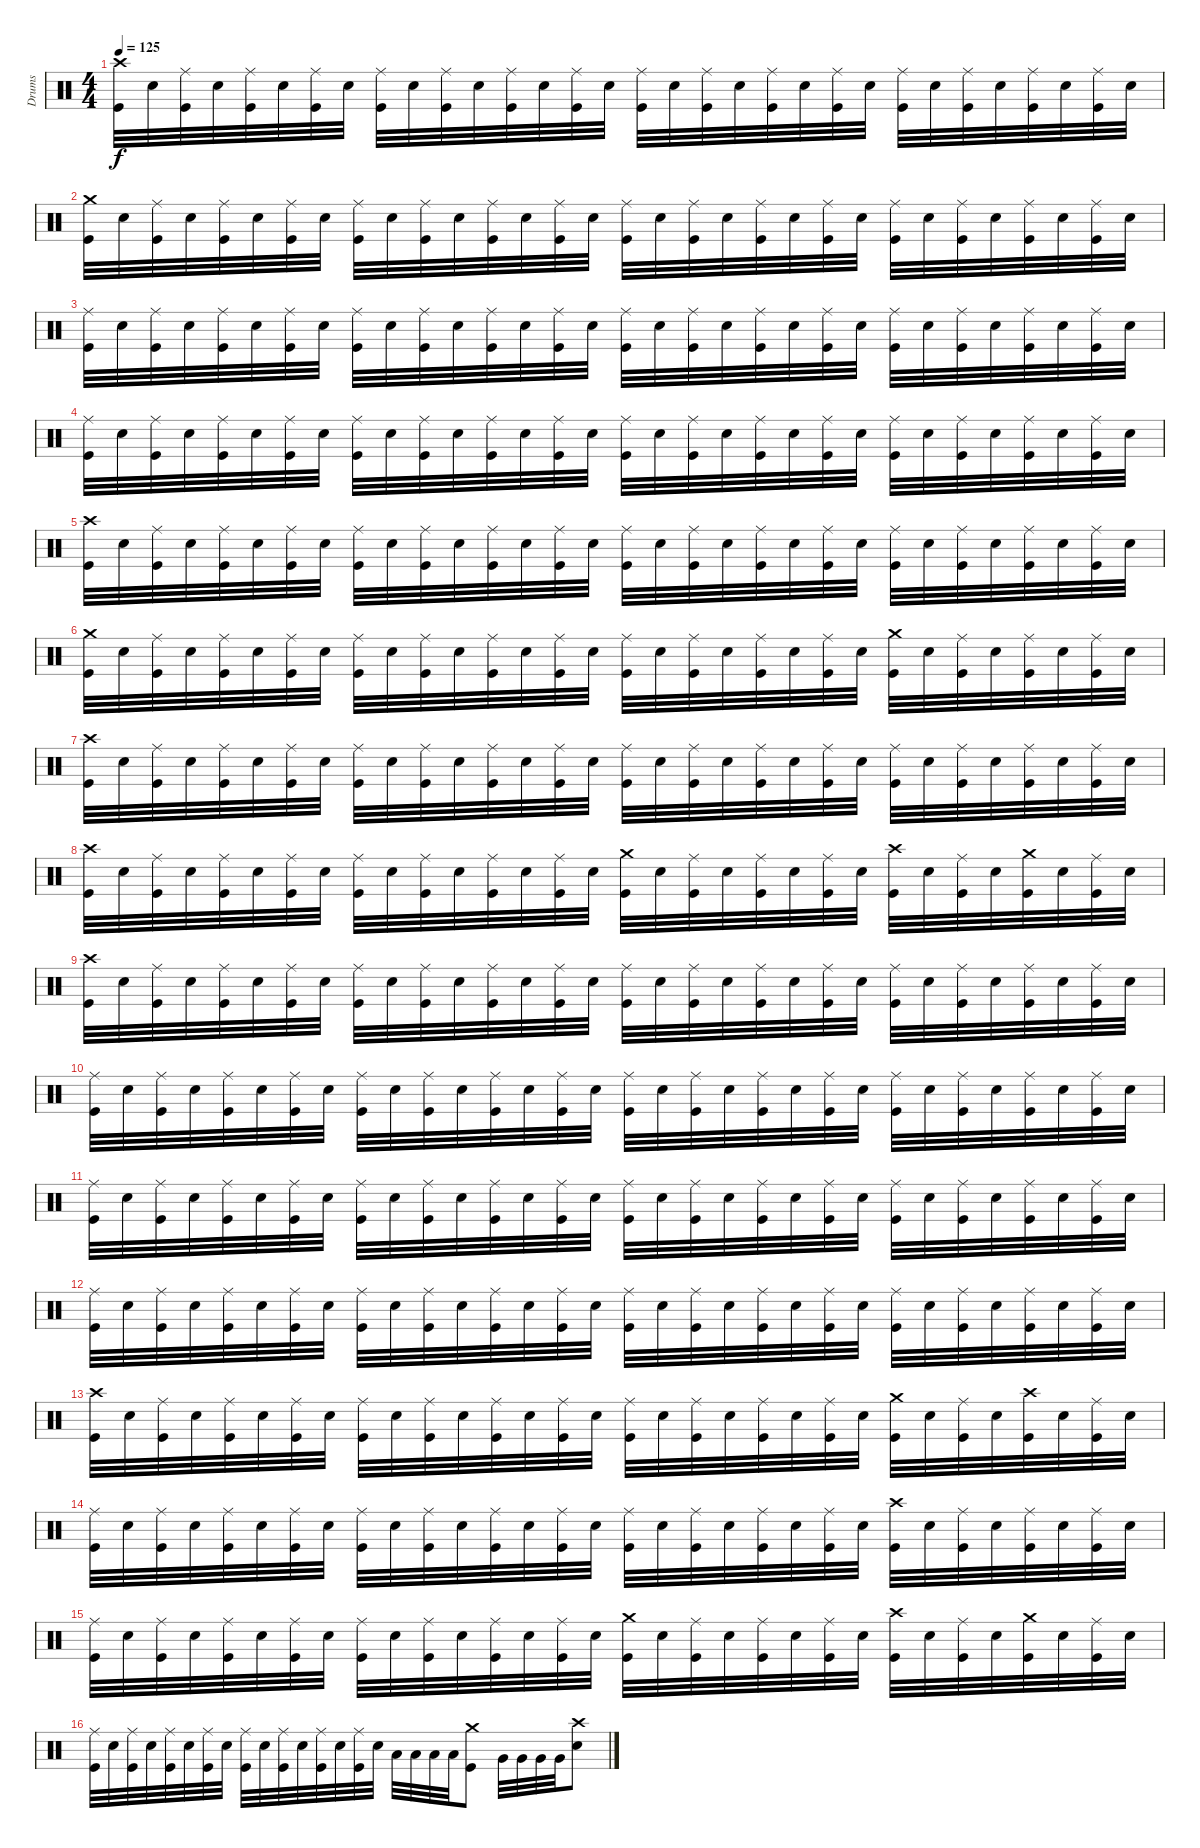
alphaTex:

\track ("Drums" "Drums") {instrument percussion}
\staff {score}
\articulation defaults
\ts (4 4)
\tempo 125
\clef neutral
\ks c
("Crash high (hit)" "Kick (hit)").32{dy f} "Electric Snare (hit)".32 ("Ride (middle)" "Kick (hit)").32 "Electric Snare (hit)".32 ("Ride (middle)" "Kick (hit)").32 "Electric Snare (hit)".32 ("Ride (middle)" "Kick (hit)").32 "Electric Snare (hit)".32 ("Ride (middle)" "Kick (hit)").32 "Electric Snare (hit)".32 ("Ride (middle)" "Kick (hit)").32 "Electric Snare (hit)".32 ("Ride (middle)" "Kick (hit)").32 "Electric Snare (hit)".32 ("Ride (middle)" "Kick (hit)").32 "Electric Snare (hit)".32 ("Ride (middle)" "Kick (hit)").32 "Electric Snare (hit)".32 ("Ride (middle)" "Kick (hit)").32 "Electric Snare (hit)".32 ("Ride (middle)" "Kick (hit)").32 "Electric Snare (hit)".32 ("Ride (middle)" "Kick (hit)").32 "Electric Snare (hit)".32 ("Ride (middle)" "Kick (hit)").32 "Electric Snare (hit)".32 ("Ride (middle)" "Kick (hit)").32 "Electric Snare (hit)".32 ("Ride (middle)" "Kick (hit)").32 "Electric Snare (hit)".32 ("Ride (middle)" "Kick (hit)").32 "Electric Snare (hit)".32 |
("Crash medium (hit)" "Kick (hit)").32 "Electric Snare (hit)".32 ("Ride (middle)" "Kick (hit)").32 "Electric Snare (hit)".32 ("Ride (middle)" "Kick (hit)").32 "Electric Snare (hit)".32 ("Ride (middle)" "Kick (hit)").32 "Electric Snare (hit)".32 ("Ride (middle)" "Kick (hit)").32 "Electric Snare (hit)".32 ("Ride (middle)" "Kick (hit)").32 "Electric Snare (hit)".32 ("Ride (middle)" "Kick (hit)").32 "Electric Snare (hit)".32 ("Ride (middle)" "Kick (hit)").32 "Electric Snare (hit)".32 ("Ride (middle)" "Kick (hit)").32 "Electric Snare (hit)".32 ("Ride (middle)" "Kick (hit)").32 "Electric Snare (hit)".32 ("Ride (middle)" "Kick (hit)").32 "Electric Snare (hit)".32 ("Ride (middle)" "Kick (hit)").32 "Electric Snare (hit)".32 ("Ride (middle)" "Kick (hit)").32 "Electric Snare (hit)".32 ("Ride (middle)" "Kick (hit)").32 "Electric Snare (hit)".32 ("Ride (middle)" "Kick (hit)").32 "Electric Snare (hit)".32 ("Ride (middle)" "Kick (hit)").32 "Electric Snare (hit)".32 |
("Ride (middle)" "Kick (hit)").32 "Electric Snare (hit)".32 ("Ride (middle)" "Kick (hit)").32 "Electric Snare (hit)".32 ("Ride (middle)" "Kick (hit)").32 "Electric Snare (hit)".32 ("Ride (middle)" "Kick (hit)").32 "Electric Snare (hit)".32 ("Ride (middle)" "Kick (hit)").32 "Electric Snare (hit)".32 ("Ride (middle)" "Kick (hit)").32 "Electric Snare (hit)".32 ("Ride (middle)" "Kick (hit)").32 "Electric Snare (hit)".32 ("Ride (middle)" "Kick (hit)").32 "Electric Snare (hit)".32 ("Ride (middle)" "Kick (hit)").32 "Electric Snare (hit)".32 ("Ride (middle)" "Kick (hit)").32 "Electric Snare (hit)".32 ("Ride (middle)" "Kick (hit)").32 "Electric Snare (hit)".32 ("Ride (middle)" "Kick (hit)").32 "Electric Snare (hit)".32 ("Ride (middle)" "Kick (hit)").32 "Electric Snare (hit)".32 ("Ride (middle)" "Kick (hit)").32 "Electric Snare (hit)".32 ("Ride (middle)" "Kick (hit)").32 "Electric Snare (hit)".32 ("Ride (middle)" "Kick (hit)").32 "Electric Snare (hit)".32 |
("Ride (middle)" "Kick (hit)").32 "Electric Snare (hit)".32 ("Ride (middle)" "Kick (hit)").32 "Electric Snare (hit)".32 ("Ride (middle)" "Kick (hit)").32 "Electric Snare (hit)".32 ("Ride (middle)" "Kick (hit)").32 "Electric Snare (hit)".32 ("Ride (middle)" "Kick (hit)").32 "Electric Snare (hit)".32 ("Ride (middle)" "Kick (hit)").32 "Electric Snare (hit)".32 ("Ride (middle)" "Kick (hit)").32 "Electric Snare (hit)".32 ("Ride (middle)" "Kick (hit)").32 "Electric Snare (hit)".32 ("Ride (middle)" "Kick (hit)").32 "Electric Snare (hit)".32 ("Ride (middle)" "Kick (hit)").32 "Electric Snare (hit)".32 ("Ride (middle)" "Kick (hit)").32 "Electric Snare (hit)".32 ("Ride (middle)" "Kick (hit)").32 "Electric Snare (hit)".32 ("Ride (middle)" "Kick (hit)").32 "Electric Snare (hit)".32 ("Ride (middle)" "Kick (hit)").32 "Electric Snare (hit)".32 ("Ride (middle)" "Kick (hit)").32 "Electric Snare (hit)".32 ("Ride (middle)" "Kick (hit)").32 "Electric Snare (hit)".32 |
("Crash high (hit)" "Kick (hit)").32 "Electric Snare (hit)".32 ("Ride (middle)" "Kick (hit)").32 "Electric Snare (hit)".32 ("Ride (middle)" "Kick (hit)").32 "Electric Snare (hit)".32 ("Ride (middle)" "Kick (hit)").32 "Electric Snare (hit)".32 ("Ride (middle)" "Kick (hit)").32 "Electric Snare (hit)".32 ("Ride (middle)" "Kick (hit)").32 "Electric Snare (hit)".32 ("Ride (middle)" "Kick (hit)").32 "Electric Snare (hit)".32 ("Ride (middle)" "Kick (hit)").32 "Electric Snare (hit)".32 ("Ride (middle)" "Kick (hit)").32 "Electric Snare (hit)".32 ("Ride (middle)" "Kick (hit)").32 "Electric Snare (hit)".32 ("Ride (middle)" "Kick (hit)").32 "Electric Snare (hit)".32 ("Ride (middle)" "Kick (hit)").32 "Electric Snare (hit)".32 ("Ride (middle)" "Kick (hit)").32 "Electric Snare (hit)".32 ("Ride (middle)" "Kick (hit)").32 "Electric Snare (hit)".32 ("Ride (middle)" "Kick (hit)").32 "Electric Snare (hit)".32 ("Ride (middle)" "Kick (hit)").32 "Electric Snare (hit)".32 |
("Crash medium (hit)" "Kick (hit)").32 "Electric Snare (hit)".32 ("Ride (middle)" "Kick (hit)").32 "Electric Snare (hit)".32 ("Ride (middle)" "Kick (hit)").32 "Electric Snare (hit)".32 ("Ride (middle)" "Kick (hit)").32 "Electric Snare (hit)".32 ("Ride (middle)" "Kick (hit)").32 "Electric Snare (hit)".32 ("Ride (middle)" "Kick (hit)").32 "Electric Snare (hit)".32 ("Ride (middle)" "Kick (hit)").32 "Electric Snare (hit)".32 ("Ride (middle)" "Kick (hit)").32 "Electric Snare (hit)".32 ("Ride (middle)" "Kick (hit)").32 "Electric Snare (hit)".32 ("Ride (middle)" "Kick (hit)").32 "Electric Snare (hit)".32 ("Ride (middle)" "Kick (hit)").32 "Electric Snare (hit)".32 ("Ride (middle)" "Kick (hit)").32 "Electric Snare (hit)".32 ("Crash medium (hit)" "Kick (hit)").32 "Electric Snare (hit)".32 ("Ride (middle)" "Kick (hit)").32 "Electric Snare (hit)".32 ("Ride (middle)" "Kick (hit)").32 "Electric Snare (hit)".32 ("Ride (middle)" "Kick (hit)").32 "Electric Snare (hit)".32 |
("Crash high (hit)" "Kick (hit)").32 "Electric Snare (hit)".32 ("Ride (middle)" "Kick (hit)").32 "Electric Snare (hit)".32 ("Ride (middle)" "Kick (hit)").32 "Electric Snare (hit)".32 ("Ride (middle)" "Kick (hit)").32 "Electric Snare (hit)".32 ("Ride (middle)" "Kick (hit)").32 "Electric Snare (hit)".32 ("Ride (middle)" "Kick (hit)").32 "Electric Snare (hit)".32 ("Ride (middle)" "Kick (hit)").32 "Electric Snare (hit)".32 ("Ride (middle)" "Kick (hit)").32 "Electric Snare (hit)".32 ("Ride (middle)" "Kick (hit)").32 "Electric Snare (hit)".32 ("Ride (middle)" "Kick (hit)").32 "Electric Snare (hit)".32 ("Ride (middle)" "Kick (hit)").32 "Electric Snare (hit)".32 ("Ride (middle)" "Kick (hit)").32 "Electric Snare (hit)".32 ("Ride (middle)" "Kick (hit)").32 "Electric Snare (hit)".32 ("Ride (middle)" "Kick (hit)").32 "Electric Snare (hit)".32 ("Ride (middle)" "Kick (hit)").32 "Electric Snare (hit)".32 ("Ride (middle)" "Kick (hit)").32 "Electric Snare (hit)".32 |
("Crash high (hit)" "Kick (hit)").32 "Electric Snare (hit)".32 ("Ride (middle)" "Kick (hit)").32 "Electric Snare (hit)".32 ("Ride (middle)" "Kick (hit)").32 "Electric Snare (hit)".32 ("Ride (middle)" "Kick (hit)").32 "Electric Snare (hit)".32 ("Ride (middle)" "Kick (hit)").32 "Electric Snare (hit)".32 ("Ride (middle)" "Kick (hit)").32 "Electric Snare (hit)".32 ("Ride (middle)" "Kick (hit)").32 "Electric Snare (hit)".32 ("Ride (middle)" "Kick (hit)").32 "Electric Snare (hit)".32 ("Crash medium (hit)" "Kick (hit)").32 "Electric Snare (hit)".32 ("Ride (middle)" "Kick (hit)").32 "Electric Snare (hit)".32 ("Ride (middle)" "Kick (hit)").32 "Electric Snare (hit)".32 ("Ride (middle)" "Kick (hit)").32 "Electric Snare (hit)".32 ("Crash high (hit)" "Kick (hit)").32 "Electric Snare (hit)".32 ("Ride (middle)" "Kick (hit)").32 "Electric Snare (hit)".32 ("Crash medium (hit)" "Kick (hit)").32 "Electric Snare (hit)".32 ("Ride (middle)" "Kick (hit)").32 "Electric Snare (hit)".32 |
("Crash high (hit)" "Kick (hit)").32 "Electric Snare (hit)".32 ("Ride (middle)" "Kick (hit)").32 "Electric Snare (hit)".32 ("Ride (middle)" "Kick (hit)").32 "Electric Snare (hit)".32 ("Ride (middle)" "Kick (hit)").32 "Electric Snare (hit)".32 ("Ride (middle)" "Kick (hit)").32 "Electric Snare (hit)".32 ("Ride (middle)" "Kick (hit)").32 "Electric Snare (hit)".32 ("Ride (middle)" "Kick (hit)").32 "Electric Snare (hit)".32 ("Ride (middle)" "Kick (hit)").32 "Electric Snare (hit)".32 ("Ride (middle)" "Kick (hit)").32 "Electric Snare (hit)".32 ("Ride (middle)" "Kick (hit)").32 "Electric Snare (hit)".32 ("Ride (middle)" "Kick (hit)").32 "Electric Snare (hit)".32 ("Ride (middle)" "Kick (hit)").32 "Electric Snare (hit)".32 ("Ride (middle)" "Kick (hit)").32 "Electric Snare (hit)".32 ("Ride (middle)" "Kick (hit)").32 "Electric Snare (hit)".32 ("Ride (middle)" "Kick (hit)").32 "Electric Snare (hit)".32 ("Ride (middle)" "Kick (hit)").32 "Electric Snare (hit)".32 |
("Ride (middle)" "Kick (hit)").32 "Electric Snare (hit)".32 ("Ride (middle)" "Kick (hit)").32 "Electric Snare (hit)".32 ("Ride (middle)" "Kick (hit)").32 "Electric Snare (hit)".32 ("Ride (middle)" "Kick (hit)").32 "Electric Snare (hit)".32 ("Ride (middle)" "Kick (hit)").32 "Electric Snare (hit)".32 ("Ride (middle)" "Kick (hit)").32 "Electric Snare (hit)".32 ("Ride (middle)" "Kick (hit)").32 "Electric Snare (hit)".32 ("Ride (middle)" "Kick (hit)").32 "Electric Snare (hit)".32 ("Ride (middle)" "Kick (hit)").32 "Electric Snare (hit)".32 ("Ride (middle)" "Kick (hit)").32 "Electric Snare (hit)".32 ("Ride (middle)" "Kick (hit)").32 "Electric Snare (hit)".32 ("Ride (middle)" "Kick (hit)").32 "Electric Snare (hit)".32 ("Ride (middle)" "Kick (hit)").32 "Electric Snare (hit)".32 ("Ride (middle)" "Kick (hit)").32 "Electric Snare (hit)".32 ("Ride (middle)" "Kick (hit)").32 "Electric Snare (hit)".32 ("Ride (middle)" "Kick (hit)").32 "Electric Snare (hit)".32 |
("Ride (middle)" "Kick (hit)").32 "Electric Snare (hit)".32 ("Ride (middle)" "Kick (hit)").32 "Electric Snare (hit)".32 ("Ride (middle)" "Kick (hit)").32 "Electric Snare (hit)".32 ("Ride (middle)" "Kick (hit)").32 "Electric Snare (hit)".32 ("Ride (middle)" "Kick (hit)").32 "Electric Snare (hit)".32 ("Ride (middle)" "Kick (hit)").32 "Electric Snare (hit)".32 ("Ride (middle)" "Kick (hit)").32 "Electric Snare (hit)".32 ("Ride (middle)" "Kick (hit)").32 "Electric Snare (hit)".32 ("Ride (middle)" "Kick (hit)").32 "Electric Snare (hit)".32 ("Ride (middle)" "Kick (hit)").32 "Electric Snare (hit)".32 ("Ride (middle)" "Kick (hit)").32 "Electric Snare (hit)".32 ("Ride (middle)" "Kick (hit)").32 "Electric Snare (hit)".32 ("Ride (middle)" "Kick (hit)").32 "Electric Snare (hit)".32 ("Ride (middle)" "Kick (hit)").32 "Electric Snare (hit)".32 ("Ride (middle)" "Kick (hit)").32 "Electric Snare (hit)".32 ("Ride (middle)" "Kick (hit)").32 "Electric Snare (hit)".32 |
("Ride (middle)" "Kick (hit)").32 "Electric Snare (hit)".32 ("Ride (middle)" "Kick (hit)").32 "Electric Snare (hit)".32 ("Ride (middle)" "Kick (hit)").32 "Electric Snare (hit)".32 ("Ride (middle)" "Kick (hit)").32 "Electric Snare (hit)".32 ("Ride (middle)" "Kick (hit)").32 "Electric Snare (hit)".32 ("Ride (middle)" "Kick (hit)").32 "Electric Snare (hit)".32 ("Ride (middle)" "Kick (hit)").32 "Electric Snare (hit)".32 ("Ride (middle)" "Kick (hit)").32 "Electric Snare (hit)".32 ("Ride (middle)" "Kick (hit)").32 "Electric Snare (hit)".32 ("Ride (middle)" "Kick (hit)").32 "Electric Snare (hit)".32 ("Ride (middle)" "Kick (hit)").32 "Electric Snare (hit)".32 ("Ride (middle)" "Kick (hit)").32 "Electric Snare (hit)".32 ("Ride (middle)" "Kick (hit)").32 "Electric Snare (hit)".32 ("Ride (middle)" "Kick (hit)").32 "Electric Snare (hit)".32 ("Ride (middle)" "Kick (hit)").32 "Electric Snare (hit)".32 ("Ride (middle)" "Kick (hit)").32 "Electric Snare (hit)".32 |
("Crash high (hit)" "Kick (hit)").32 "Electric Snare (hit)".32 ("Ride (middle)" "Kick (hit)").32 "Electric Snare (hit)".32 ("Ride (middle)" "Kick (hit)").32 "Electric Snare (hit)".32 ("Ride (middle)" "Kick (hit)").32 "Electric Snare (hit)".32 ("Ride (middle)" "Kick (hit)").32 "Electric Snare (hit)".32 ("Ride (middle)" "Kick (hit)").32 "Electric Snare (hit)".32 ("Ride (middle)" "Kick (hit)").32 "Electric Snare (hit)".32 ("Ride (middle)" "Kick (hit)").32 "Electric Snare (hit)".32 ("Ride (middle)" "Kick (hit)").32 "Electric Snare (hit)".32 ("Ride (middle)" "Kick (hit)").32 "Electric Snare (hit)".32 ("Ride (middle)" "Kick (hit)").32 "Electric Snare (hit)".32 ("Ride (middle)" "Kick (hit)").32 "Electric Snare (hit)".32 ("Crash medium (hit)" "Kick (hit)").32 "Electric Snare (hit)".32 ("Ride (middle)" "Kick (hit)").32 "Electric Snare (hit)".32 ("Crash high (hit)" "Kick (hit)").32 "Electric Snare (hit)".32 ("Ride (middle)" "Kick (hit)").32 "Electric Snare (hit)".32 |
("Ride (middle)" "Kick (hit)").32 "Electric Snare (hit)".32 ("Ride (middle)" "Kick (hit)").32 "Electric Snare (hit)".32 ("Ride (middle)" "Kick (hit)").32 "Electric Snare (hit)".32 ("Ride (middle)" "Kick (hit)").32 "Electric Snare (hit)".32 ("Ride (middle)" "Kick (hit)").32 "Electric Snare (hit)".32 ("Ride (middle)" "Kick (hit)").32 "Electric Snare (hit)".32 ("Ride (middle)" "Kick (hit)").32 "Electric Snare (hit)".32 ("Ride (middle)" "Kick (hit)").32 "Electric Snare (hit)".32 ("Ride (middle)" "Kick (hit)").32 "Electric Snare (hit)".32 ("Ride (middle)" "Kick (hit)").32 "Electric Snare (hit)".32 ("Ride (middle)" "Kick (hit)").32 "Electric Snare (hit)".32 ("Ride (middle)" "Kick (hit)").32 "Electric Snare (hit)".32 ("Crash high (hit)" "Kick (hit)").32 "Electric Snare (hit)".32 ("Ride (middle)" "Kick (hit)").32 "Electric Snare (hit)".32 ("Ride (middle)" "Kick (hit)").32 "Electric Snare (hit)".32 ("Ride (middle)" "Kick (hit)").32 "Electric Snare (hit)".32 |
("Ride (middle)" "Kick (hit)").32 "Electric Snare (hit)".32 ("Ride (middle)" "Kick (hit)").32 "Electric Snare (hit)".32 ("Ride (middle)" "Kick (hit)").32 "Electric Snare (hit)".32 ("Ride (middle)" "Kick (hit)").32 "Electric Snare (hit)".32 ("Ride (middle)" "Kick (hit)").32 "Electric Snare (hit)".32 ("Ride (middle)" "Kick (hit)").32 "Electric Snare (hit)".32 ("Ride (middle)" "Kick (hit)").32 "Electric Snare (hit)".32 ("Ride (middle)" "Kick (hit)").32 "Electric Snare (hit)".32 ("Crash medium (hit)" "Kick (hit)").32 "Electric Snare (hit)".32 ("Ride (middle)" "Kick (hit)").32 "Electric Snare (hit)".32 ("Ride (middle)" "Kick (hit)").32 "Electric Snare (hit)".32 ("Ride (middle)" "Kick (hit)").32 "Electric Snare (hit)".32 ("Crash high (hit)" "Kick (hit)").32 "Electric Snare (hit)".32 ("Ride (middle)" "Kick (hit)").32 "Electric Snare (hit)".32 ("Crash medium (hit)" "Kick (hit)").32 "Electric Snare (hit)".32 ("Ride (middle)" "Kick (hit)").32 "Electric Snare (hit)".32 |
("Ride (middle)" "Kick (hit)").32 "Electric Snare (hit)".32 ("Ride (middle)" "Kick (hit)").32 "Electric Snare (hit)".32 ("Ride (middle)" "Kick (hit)").32 "Electric Snare (hit)".32 ("Ride (middle)" "Kick (hit)").32 "Electric Snare (hit)".32 ("Ride (middle)" "Kick (hit)").32 "Electric Snare (hit)".32 ("Ride (middle)" "Kick (hit)").32 "Electric Snare (hit)".32 ("Ride (middle)" "Kick (hit)").32 "Electric Snare (hit)".32 ("Ride (middle)" "Kick (hit)").32 "Electric Snare (hit)".32 "Low Tom (hit)".32 "Low Tom (hit)".32 "Low Tom (hit)".32 "Low Tom (hit)".32 ("Crash medium (hit)" "Kick (hit)").8 "Very Low Tom (hit)".32 "Very Low Tom (hit)".32 "Very Low Tom (hit)".32 "Very Low Tom (hit)".32 ("Crash high (hit)" "Electric Snare (hit)").8
